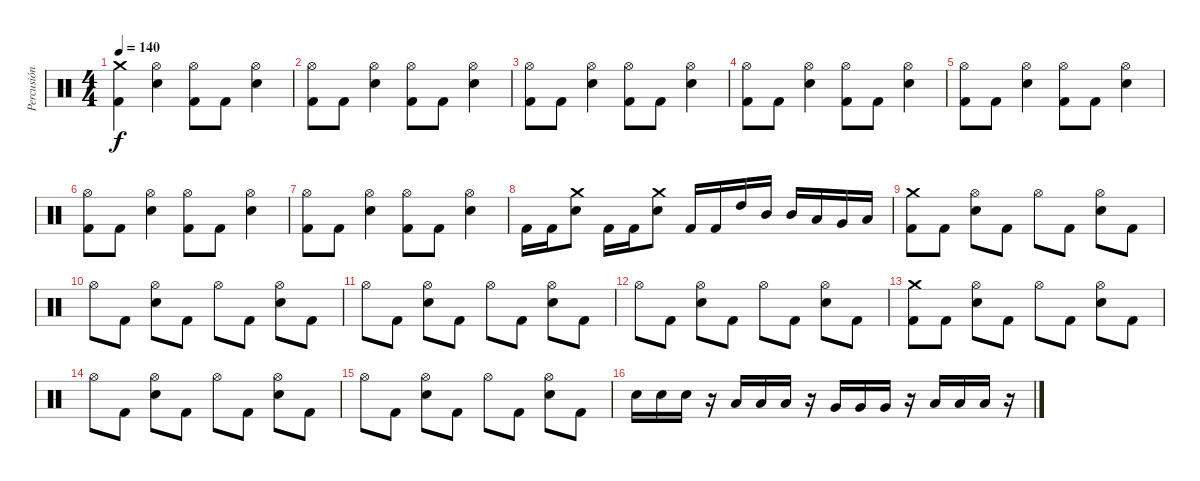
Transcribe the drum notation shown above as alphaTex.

\track ("Percusión" "Percusión") {instrument percussion}
\staff {score}
\articulation defaults
\ts (4 4)
\tempo 140
\clef neutral
\ks c
("Crash medium (hit)" "Kick (hit) 2").4{dy f} ("Hi-Hat (open)" "Electric Snare (hit)").4 ("Hi-Hat (open)" "Kick (hit) 2").8 "Kick (hit) 2".8 ("Hi-Hat (open)" "Electric Snare (hit)").4 |
("Hi-Hat (open)" "Kick (hit) 2").8 "Kick (hit) 2".8 ("Hi-Hat (open)" "Electric Snare (hit)").4 ("Hi-Hat (open)" "Kick (hit) 2").8 "Kick (hit) 2".8 ("Hi-Hat (open)" "Electric Snare (hit)").4 |
("Hi-Hat (open)" "Kick (hit) 2").8 "Kick (hit) 2".8 ("Hi-Hat (open)" "Electric Snare (hit)").4 ("Hi-Hat (open)" "Kick (hit) 2").8 "Kick (hit) 2".8 ("Hi-Hat (open)" "Electric Snare (hit)").4 |
("Hi-Hat (open)" "Kick (hit) 2").8 "Kick (hit) 2".8 ("Hi-Hat (open)" "Electric Snare (hit)").4 ("Hi-Hat (open)" "Kick (hit) 2").8 "Kick (hit) 2".8 ("Hi-Hat (open)" "Electric Snare (hit)").4 |
("Hi-Hat (open)" "Kick (hit) 2").8 "Kick (hit) 2".8 ("Hi-Hat (open)" "Electric Snare (hit)").4 ("Hi-Hat (open)" "Kick (hit) 2").8 "Kick (hit) 2".8 ("Hi-Hat (open)" "Electric Snare (hit)").4 |
("Hi-Hat (open)" "Kick (hit) 2").8 "Kick (hit) 2".8 ("Hi-Hat (open)" "Electric Snare (hit)").4 ("Hi-Hat (open)" "Kick (hit) 2").8 "Kick (hit) 2".8 ("Hi-Hat (open)" "Electric Snare (hit)").4 |
("Hi-Hat (open)" "Kick (hit) 2").8 "Kick (hit) 2".8 ("Hi-Hat (open)" "Electric Snare (hit)").4 ("Hi-Hat (open)" "Kick (hit) 2").8 "Kick (hit) 2".8 ("Hi-Hat (open)" "Electric Snare (hit)").4 |
"Kick (hit) 2".16 "Kick (hit) 2".16 ("Crash medium (hit)" "Electric Snare (hit)").8 "Kick (hit) 2".16 "Kick (hit) 2".16 ("Crash medium (hit)" "Electric Snare (hit)").8 "Kick (hit) 2".16 "Kick (hit) 2".16 "High Tom (hit)".16 "Mid Tom (hit)".16 "Mid Tom (hit)".16 "Low Tom (hit)".16 "Very Low Tom (hit)".16 "Low Floor Tom (hit)".16 |
("Crash medium (hit)" "Kick (hit) 2").8 "Kick (hit) 2".8 ("Hi-Hat (open)" "Electric Snare (hit)").8 "Kick (hit) 2".8 "Hi-Hat (open)".8 "Kick (hit) 2".8 ("Hi-Hat (open)" "Electric Snare (hit)").8 "Kick (hit) 2".8 |
"Hi-Hat (open)".8 "Kick (hit) 2".8 ("Hi-Hat (open)" "Electric Snare (hit)").8 "Kick (hit) 2".8 "Hi-Hat (open)".8 "Kick (hit) 2".8 ("Hi-Hat (open)" "Electric Snare (hit)").8 "Kick (hit) 2".8 |
"Hi-Hat (open)".8 "Kick (hit) 2".8 ("Hi-Hat (open)" "Electric Snare (hit)").8 "Kick (hit) 2".8 "Hi-Hat (open)".8 "Kick (hit) 2".8 ("Hi-Hat (open)" "Electric Snare (hit)").8 "Kick (hit) 2".8 |
"Hi-Hat (open)".8 "Kick (hit) 2".8 ("Hi-Hat (open)" "Electric Snare (hit)").8 "Kick (hit) 2".8 "Hi-Hat (open)".8 "Kick (hit) 2".8 ("Hi-Hat (open)" "Electric Snare (hit)").8 "Kick (hit) 2".8 |
("Crash medium (hit)" "Kick (hit) 2").8 "Kick (hit) 2".8 ("Hi-Hat (open)" "Electric Snare (hit)").8 "Kick (hit) 2".8 "Hi-Hat (open)".8 "Kick (hit) 2".8 ("Hi-Hat (open)" "Electric Snare (hit)").8 "Kick (hit) 2".8 |
"Hi-Hat (open)".8 "Kick (hit) 2".8 ("Hi-Hat (open)" "Electric Snare (hit)").8 "Kick (hit) 2".8 "Hi-Hat (open)".8 "Kick (hit) 2".8 ("Hi-Hat (open)" "Electric Snare (hit)").8 "Kick (hit) 2".8 |
"Hi-Hat (open)".8 "Kick (hit) 2".8 ("Hi-Hat (open)" "Electric Snare (hit)").8 "Kick (hit) 2".8 "Hi-Hat (open)".8 "Kick (hit) 2".8 ("Hi-Hat (open)" "Electric Snare (hit)").8 "Kick (hit) 2".8 |
"Electric Snare (hit)".16 "Electric Snare (hit)".16 "Electric Snare (hit)".16 r.16 "Low Tom (hit)".16 "Low Tom (hit)".16 "Low Tom (hit)".16 r.16 "Very Low Tom (hit)".16 "Very Low Tom (hit)".16 "Very Low Tom (hit)".16 r.16 "Low Floor Tom (hit)".16 "Low Floor Tom (hit)".16 "Low Floor Tom (hit)".16 r.16
